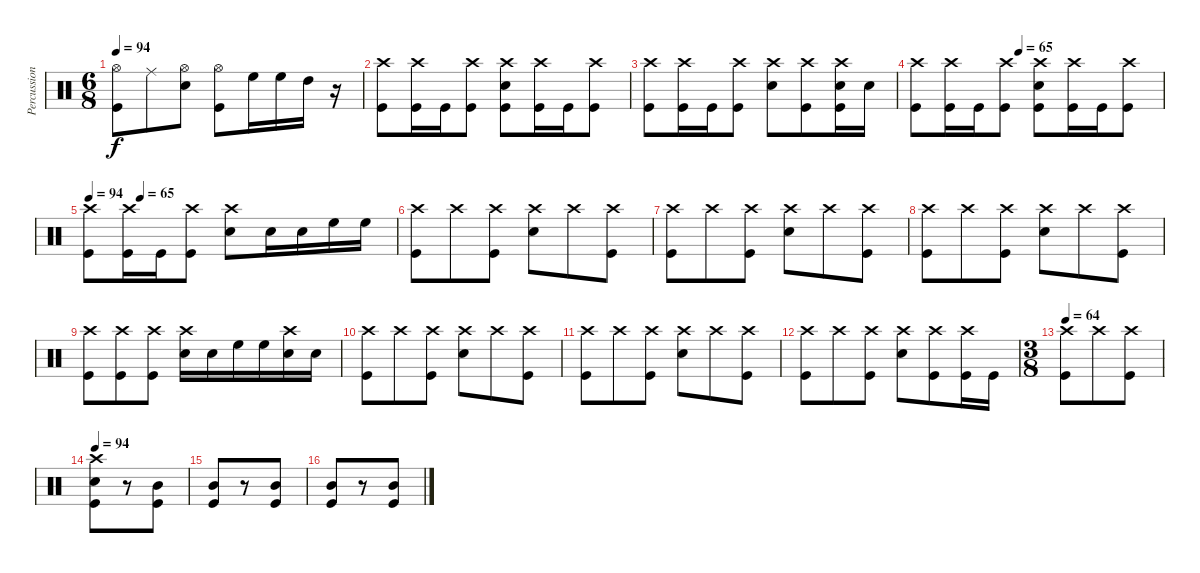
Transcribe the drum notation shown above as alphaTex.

\track ("Percussioni" "Percussion") {instrument percussion}
\staff {score}
\articulation defaults
\ts (6 8)
\tempo 94
\clef neutral
\ks c
("Hi-Hat (open)" "Kick (hit)").8{dy f} "Ride (middle)".8 ("Hi-Hat (open)" "Snare (hit) 2").8 ("Hi-Hat (open)" "Kick (hit)").8 "High Floor Tom (hit)".16 "High Floor Tom (hit)".16 "High Tom (hit)".16 r.16 |
("Kick (hit)" "Crash high (hit)").8 ("Kick (hit)" "Crash high (hit)").16 "Kick (hit)".16 ("Kick (hit)" "Crash high (hit)").8 ("Kick (hit)" "Snare (hit) 2" "Crash high (hit)").8 ("Kick (hit)" "Crash high (hit)").16 "Kick (hit)".16 ("Kick (hit)" "Crash high (hit)").8 |
("Kick (hit)" "Crash high (hit)").8 ("Kick (hit)" "Crash high (hit)").16 "Kick (hit)".16 ("Kick (hit)" "Crash high (hit)").8 ("Snare (hit) 2" "Crash high (hit)").8 ("Crash high (hit)" "Kick (hit)").8 ("Crash high (hit)" "Kick (hit)" "Snare (hit) 2").16 "Snare (hit) 2".16 |
\tempo (65 0.4166666666666667)
("Kick (hit)" "Crash high (hit)").8 ("Kick (hit)" "Crash high (hit)").16 "Kick (hit)".16 ("Kick (hit)" "Crash high (hit)").8 ("Kick (hit)" "Snare (hit) 2" "Crash high (hit)").8 ("Kick (hit)" "Crash high (hit)").16 "Kick (hit)".16 ("Kick (hit)" "Crash high (hit)").8 |
\tempo (65 0.16666666666666666)
\tempo 94
("Kick (hit)" "Crash high (hit)").8 ("Kick (hit)" "Crash high (hit)").16 "Kick (hit)".16 ("Kick (hit)" "Crash high (hit)").8 ("Snare (hit) 2" "Crash high (hit)").8 "Snare (hit) 2".16 "Snare (hit) 2".16 "High Floor Tom (hit)".16 "High Floor Tom (hit)".16 |
("Crash high (hit)" "Kick (hit)").8 "Crash high (hit)".8 ("Crash high (hit)" "Kick (hit)").8 ("Snare (hit) 2" "Crash high (hit)").8 "Crash high (hit)".8 ("Crash high (hit)" "Kick (hit)").8 |
("Crash high (hit)" "Kick (hit)").8 "Crash high (hit)".8 ("Crash high (hit)" "Kick (hit)").8 ("Snare (hit) 2" "Crash high (hit)").8 "Crash high (hit)".8 ("Crash high (hit)" "Kick (hit)").8 |
("Crash high (hit)" "Kick (hit)").8 "Crash high (hit)".8 ("Crash high (hit)" "Kick (hit)").8 ("Snare (hit) 2" "Crash high (hit)").8 "Crash high (hit)".8 ("Crash high (hit)" "Kick (hit)").8 |
("Crash high (hit)" "Kick (hit)").8 ("Crash high (hit)" "Kick (hit)").8 ("Crash high (hit)" "Kick (hit)").8 ("Snare (hit) 2" "Crash high (hit)").16 "Snare (hit) 2".16 "High Floor Tom (hit)".16 "High Floor Tom (hit)".16 ("Snare (hit) 2" "Crash high (hit)").16 "Snare (hit) 2".16 |
("Crash high (hit)" "Kick (hit)").8 "Crash high (hit)".8 ("Crash high (hit)" "Kick (hit)").8 ("Snare (hit) 2" "Crash high (hit)").8 "Crash high (hit)".8 ("Crash high (hit)" "Kick (hit)").8 |
("Crash high (hit)" "Kick (hit)").8 "Crash high (hit)".8 ("Crash high (hit)" "Kick (hit)").8 ("Snare (hit) 2" "Crash high (hit)").8 "Crash high (hit)".8 ("Crash high (hit)" "Kick (hit)").8 |
("Crash high (hit)" "Kick (hit)").8 "Crash high (hit)".8 ("Crash high (hit)" "Kick (hit)").8 ("Crash high (hit)" "Snare (hit) 2").8 ("Crash high (hit)" "Kick (hit)").8 ("Crash high (hit)" "Kick (hit)").16 "Kick (hit)".16 |
\ts (3 8)
\tempo 64
("Crash high (hit)" "Kick (hit)").8 "Crash high (hit)".8 ("Crash high (hit)" "Kick (hit)").8 |
\tempo 94
("Kick (hit)" "Snare (hit) 2" "Crash high (hit)").8 r.8 ("Kick (hit)" "Mid Tom (hit)").8 |
("Kick (hit)" "Mid Tom (hit)").8 r.8 ("Kick (hit)" "Mid Tom (hit)").8 |
("Kick (hit)" "Mid Tom (hit)").8 r.8 ("Kick (hit)" "Mid Tom (hit)").8
